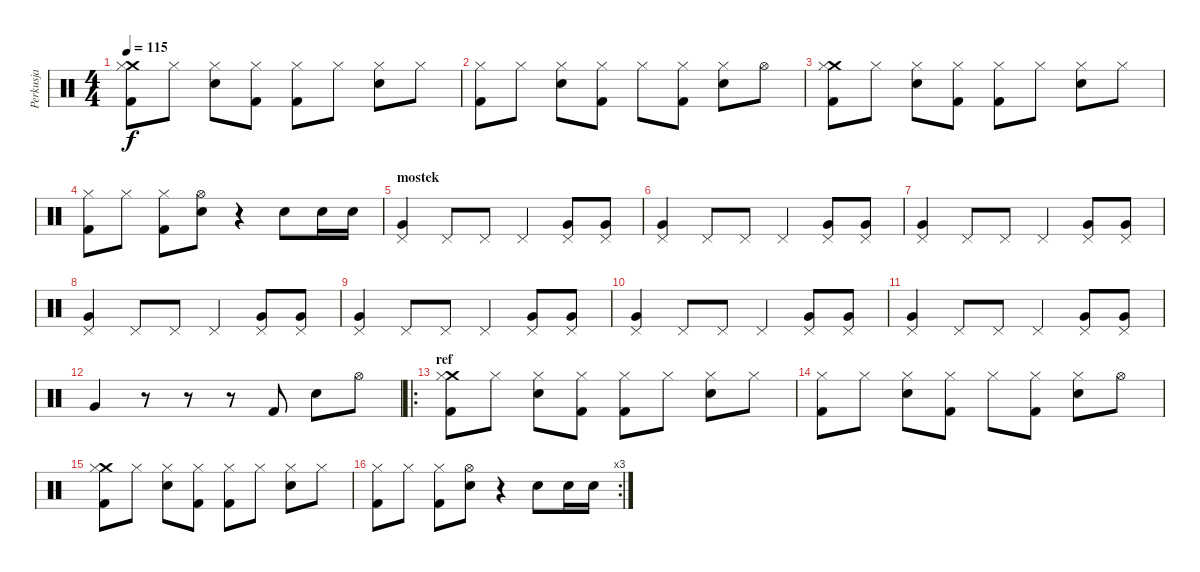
\track ("Perkusja" "Perkusja") {instrument percussion}
\staff {score}
\articulation defaults
\ts (4 4)
\tempo 115
\clef neutral
\ks c
("Crash medium (hit)" "Hi-Hat (closed)" "Kick (hit) 2").8{dy f} "Hi-Hat (closed)".8 ("Hi-Hat (closed)" "Electric Snare (hit)").8 ("Hi-Hat (closed)" "Kick (hit) 2").8 ("Hi-Hat (closed)" "Kick (hit) 2").8 "Hi-Hat (closed)".8 ("Hi-Hat (closed)" "Electric Snare (hit)").8 "Hi-Hat (closed)".8 |
("Hi-Hat (closed)" "Kick (hit) 2").8 "Hi-Hat (closed)".8 ("Hi-Hat (closed)" "Electric Snare (hit)").8 ("Hi-Hat (closed)" "Kick (hit) 2").8 "Hi-Hat (closed)".8 ("Hi-Hat (closed)" "Kick (hit) 2").8 ("Hi-Hat (closed)" "Electric Snare (hit)").8 "Hi-Hat (open)".8 |
("Crash medium (hit)" "Hi-Hat (closed)" "Kick (hit) 2").8 "Hi-Hat (closed)".8 ("Hi-Hat (closed)" "Electric Snare (hit)").8 ("Hi-Hat (closed)" "Kick (hit) 2").8 ("Hi-Hat (closed)" "Kick (hit) 2").8 "Hi-Hat (closed)".8 ("Hi-Hat (closed)" "Electric Snare (hit)").8 "Hi-Hat (closed)".8 |
("Hi-Hat (closed)" "Kick (hit) 2").8 "Hi-Hat (closed)".8 ("Hi-Hat (closed)" "Kick (hit) 2").8 ("Hi-Hat (open)" "Electric Snare (hit)").8 r.4 "Electric Snare (hit)".8 "Electric Snare (hit)".16 "Electric Snare (hit)".16 |
\section ("" "mostek")
("Pedal Hi-Hat (hit)" "Very Low Tom (hit)").4 "Pedal Hi-Hat (hit)".8 "Pedal Hi-Hat (hit)".8 "Pedal Hi-Hat (hit)".4 ("Pedal Hi-Hat (hit)" "Very Low Tom (hit)").8 ("Pedal Hi-Hat (hit)" "Very Low Tom (hit)").8 |
("Pedal Hi-Hat (hit)" "Very Low Tom (hit)").4 "Pedal Hi-Hat (hit)".8 "Pedal Hi-Hat (hit)".8 "Pedal Hi-Hat (hit)".4 ("Pedal Hi-Hat (hit)" "Very Low Tom (hit)").8 ("Pedal Hi-Hat (hit)" "Very Low Tom (hit)").8 |
("Pedal Hi-Hat (hit)" "Very Low Tom (hit)").4 "Pedal Hi-Hat (hit)".8 "Pedal Hi-Hat (hit)".8 "Pedal Hi-Hat (hit)".4 ("Pedal Hi-Hat (hit)" "Very Low Tom (hit)").8 ("Pedal Hi-Hat (hit)" "Very Low Tom (hit)").8 |
("Pedal Hi-Hat (hit)" "Very Low Tom (hit)").4 "Pedal Hi-Hat (hit)".8 "Pedal Hi-Hat (hit)".8 "Pedal Hi-Hat (hit)".4 ("Pedal Hi-Hat (hit)" "Very Low Tom (hit)").8 ("Pedal Hi-Hat (hit)" "Very Low Tom (hit)").8 |
("Pedal Hi-Hat (hit)" "Very Low Tom (hit)").4 "Pedal Hi-Hat (hit)".8 "Pedal Hi-Hat (hit)".8 "Pedal Hi-Hat (hit)".4 ("Pedal Hi-Hat (hit)" "Very Low Tom (hit)").8 ("Pedal Hi-Hat (hit)" "Very Low Tom (hit)").8 |
("Pedal Hi-Hat (hit)" "Very Low Tom (hit)").4 "Pedal Hi-Hat (hit)".8 "Pedal Hi-Hat (hit)".8 "Pedal Hi-Hat (hit)".4 ("Pedal Hi-Hat (hit)" "Very Low Tom (hit)").8 ("Pedal Hi-Hat (hit)" "Very Low Tom (hit)").8 |
("Pedal Hi-Hat (hit)" "Very Low Tom (hit)").4 "Pedal Hi-Hat (hit)".8 "Pedal Hi-Hat (hit)".8 "Pedal Hi-Hat (hit)".4 ("Pedal Hi-Hat (hit)" "Very Low Tom (hit)").8 ("Pedal Hi-Hat (hit)" "Very Low Tom (hit)").8 |
"Very Low Tom (hit)".4 r.8 r.8 r.8 "Kick (hit) 2".8 "Electric Snare (hit)".8 "Hi-Hat (open)".8 |
\ro
\section ("" "ref")
("Crash medium (hit)" "Hi-Hat (closed)" "Kick (hit) 2").8 "Hi-Hat (closed)".8 ("Hi-Hat (closed)" "Electric Snare (hit)").8 ("Hi-Hat (closed)" "Kick (hit) 2").8 ("Hi-Hat (closed)" "Kick (hit) 2").8 "Hi-Hat (closed)".8 ("Hi-Hat (closed)" "Electric Snare (hit)").8 "Hi-Hat (closed)".8 |
("Hi-Hat (closed)" "Kick (hit) 2").8 "Hi-Hat (closed)".8 ("Hi-Hat (closed)" "Electric Snare (hit)").8 ("Hi-Hat (closed)" "Kick (hit) 2").8 "Hi-Hat (closed)".8 ("Hi-Hat (closed)" "Kick (hit) 2").8 ("Hi-Hat (closed)" "Electric Snare (hit)").8 "Hi-Hat (open)".8 |
("Crash medium (hit)" "Hi-Hat (closed)" "Kick (hit) 2").8 "Hi-Hat (closed)".8 ("Hi-Hat (closed)" "Electric Snare (hit)").8 ("Hi-Hat (closed)" "Kick (hit) 2").8 ("Hi-Hat (closed)" "Kick (hit) 2").8 "Hi-Hat (closed)".8 ("Hi-Hat (closed)" "Electric Snare (hit)").8 "Hi-Hat (closed)".8 |
\rc 3
("Hi-Hat (closed)" "Kick (hit) 2").8 "Hi-Hat (closed)".8 ("Hi-Hat (closed)" "Kick (hit) 2").8 ("Hi-Hat (open)" "Electric Snare (hit)").8 r.4 "Electric Snare (hit)".8 "Electric Snare (hit)".16 "Electric Snare (hit)".16
